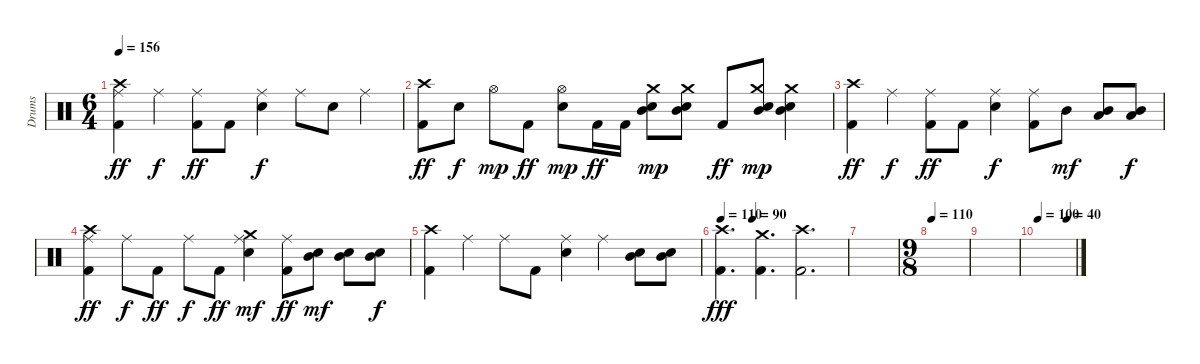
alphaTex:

\track ("Drums" "Drums") {instrument percussion}
\staff {score}
\articulation defaults
\ts (6 4)
\tempo 156
\clef neutral
\ks c
("Crash high (hit)" "Ride (middle)" "Kick (hit) 2").4{dy ff} "Ride (middle)".4{dy f} ("Ride (middle)" "Kick (hit) 2").8{dy ff} "Kick (hit) 2".8 ("Ride (middle)" "Electric Snare (hit)").4{dy f} "Ride (middle)".8 "Electric Snare (hit)".8 "Ride (middle)".4 |
("Crash high (hit)" "Kick (hit) 2").8{dy ff} "Electric Snare (hit)".8{dy f} "Hi-Hat (open)".8{dy mp} "Kick (hit) 2".8{dy ff} ("Hi-Hat (open)" "Electric Snare (hit)").8{dy mp} "Kick (hit) 2".16{dy ff} "Kick (hit) 2".16 ("Crash medium (hit)" "Electric Snare (hit)" "Mid Tom (hit)").8{dy mp} ("Crash medium (hit)" "Electric Snare (hit)" "Mid Tom (hit)").8 "Kick (hit) 2".8{dy ff} ("Crash medium (hit)" "Electric Snare (hit)" "Mid Tom (hit)").8{dy mp} ("Crash medium (hit)" "Electric Snare (hit)" "Mid Tom (hit)").4 |
("Crash high (hit)" "Kick (hit) 2").4{dy ff} "Ride (middle)".4{dy f} ("Ride (middle)" "Kick (hit) 2").8{dy ff} "Kick (hit) 2".8 ("Ride (middle)" "Electric Snare (hit)").4{dy f} ("Ride (middle)" "Kick (hit) 2").8 "Mid Tom (hit)".8{dy mf} ("Mid Tom (hit)" "Low Tom (hit)").8 ("Mid Tom (hit)" "Low Tom (hit)").8{dy f} |
("Crash high (hit)" "Ride (middle)" "Kick (hit) 2").4{dy ff} "Ride (middle)".8{dy f} "Kick (hit) 2".8{dy ff} "Ride (middle)".8{dy f} "Kick (hit) 2".8{dy ff} ("Crash medium (hit)" "Ride (middle)" "Electric Snare (hit)").4{dy mf} ("Ride (middle)" "Kick (hit) 2").8{dy ff} ("Electric Snare (hit)" "Mid Tom (hit)").8{dy mf} ("Electric Snare (hit)" "Mid Tom (hit)").8 ("Electric Snare (hit)" "Mid Tom (hit)").8{dy f} |
("Crash high (hit)" "Kick (hit) 2").4 "Ride (middle)".4 "Ride (middle)".8 "Kick (hit) 2".8 ("Ride (middle)" "Electric Snare (hit)").4 "Ride (middle)".4 ("Electric Snare (hit)" "Mid Tom (hit)").8 ("Electric Snare (hit)" "Mid Tom (hit)").8 |
\tempo 110
\tempo (90 0.25)
("Crash high (hit)" "Kick (hit) 2").4{d dy fff} ("Crash medium (hit)" "Kick (hit) 2").4{d} ("Crash high (hit)" "Kick (hit) 2").2{d} |
|
\ts (9 8)
\tempo 110
|
|
\tempo 100
\tempo (40 0.7777777777777778)
